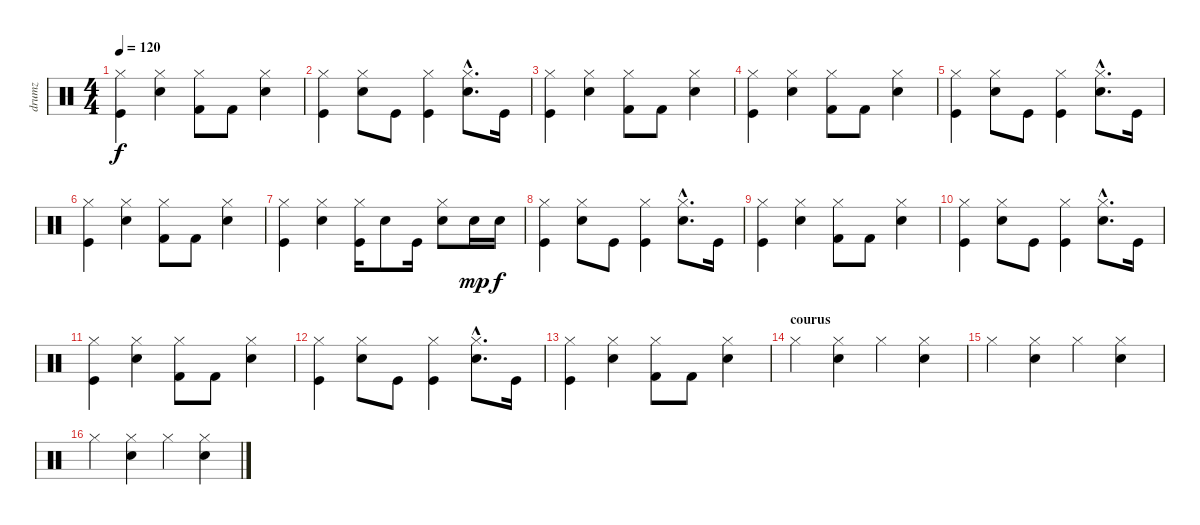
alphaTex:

\track ("drumz" "drumz") {instrument percussion}
\staff {score}
\articulation defaults
\ts (4 4)
\tempo 120
\clef neutral
\ks c
("Kick (hit)" "Hi-Hat (closed)").4{dy f} ("Snare (hit) 2" "Hi-Hat (closed)").4 ("Kick (hit) 2" "Hi-Hat (closed)").8 "Kick (hit) 2".8 ("Snare (hit) 2" "Hi-Hat (closed)").4 |
("Kick (hit)" "Hi-Hat (closed)").4 ("Snare (hit) 2" "Hi-Hat (closed)").8 "Kick (hit)".8 ("Kick (hit)" "Hi-Hat (closed)").4 ("Snare (hit) 2"{hac} "Hi-Hat (closed)"{hac}).8{d} "Kick (hit)".16 |
("Kick (hit)" "Hi-Hat (closed)").4 ("Snare (hit) 2" "Hi-Hat (closed)").4 ("Kick (hit) 2" "Hi-Hat (closed)").8 "Kick (hit) 2".8 ("Snare (hit) 2" "Hi-Hat (closed)").4 |
("Kick (hit)" "Hi-Hat (closed)").4 ("Snare (hit) 2" "Hi-Hat (closed)").4 ("Kick (hit) 2" "Hi-Hat (closed)").8 "Kick (hit) 2".8 ("Snare (hit) 2" "Hi-Hat (closed)").4 |
("Kick (hit)" "Hi-Hat (closed)").4 ("Snare (hit) 2" "Hi-Hat (closed)").8 "Kick (hit)".8 ("Kick (hit)" "Hi-Hat (closed)").4 ("Snare (hit) 2"{hac} "Hi-Hat (closed)"{hac}).8{d} "Kick (hit)".16 |
("Kick (hit)" "Hi-Hat (closed)").4 ("Snare (hit) 2" "Hi-Hat (closed)").4 ("Kick (hit) 2" "Hi-Hat (closed)").8 "Kick (hit) 2".8 ("Snare (hit) 2" "Hi-Hat (closed)").4 |
("Kick (hit)" "Hi-Hat (closed)").4 ("Snare (hit) 2" "Hi-Hat (closed)").4 ("Kick (hit)" "Hi-Hat (closed)").16 "Snare (hit) 2".8 "Kick (hit)".16 ("Snare (hit) 2" "Hi-Hat (closed)").8 "Snare (hit) 2".16{dy mp} "Snare (hit) 2".16{dy f} |
("Kick (hit)" "Hi-Hat (closed)").4 ("Snare (hit) 2" "Hi-Hat (closed)").8 "Kick (hit)".8 ("Kick (hit)" "Hi-Hat (closed)").4 ("Snare (hit) 2"{hac} "Hi-Hat (closed)"{hac}).8{d} "Kick (hit)".16 |
("Kick (hit)" "Hi-Hat (closed)").4 ("Snare (hit) 2" "Hi-Hat (closed)").4 ("Kick (hit) 2" "Hi-Hat (closed)").8 "Kick (hit) 2".8 ("Snare (hit) 2" "Hi-Hat (closed)").4 |
("Kick (hit)" "Hi-Hat (closed)").4 ("Snare (hit) 2" "Hi-Hat (closed)").8 "Kick (hit)".8 ("Kick (hit)" "Hi-Hat (closed)").4 ("Snare (hit) 2"{hac} "Hi-Hat (closed)"{hac}).8{d} "Kick (hit)".16 |
("Kick (hit)" "Hi-Hat (closed)").4 ("Snare (hit) 2" "Hi-Hat (closed)").4 ("Kick (hit) 2" "Hi-Hat (closed)").8 "Kick (hit) 2".8 ("Snare (hit) 2" "Hi-Hat (closed)").4 |
("Kick (hit)" "Hi-Hat (closed)").4 ("Snare (hit) 2" "Hi-Hat (closed)").8 "Kick (hit)".8 ("Kick (hit)" "Hi-Hat (closed)").4 ("Snare (hit) 2"{hac} "Hi-Hat (closed)"{hac}).8{d} "Kick (hit)".16 |
("Kick (hit)" "Hi-Hat (closed)").4 ("Snare (hit) 2" "Hi-Hat (closed)").4 ("Kick (hit) 2" "Hi-Hat (closed)").8 "Kick (hit) 2".8 ("Snare (hit) 2" "Hi-Hat (closed)").4 |
\section ("" "courus")
"Hi-Hat (closed)".4 ("Snare (hit) 2" "Hi-Hat (closed)").4 "Hi-Hat (closed)".4 ("Snare (hit) 2" "Hi-Hat (closed)").4 |
"Hi-Hat (closed)".4 ("Snare (hit) 2" "Hi-Hat (closed)").4 "Hi-Hat (closed)".4 ("Snare (hit) 2" "Hi-Hat (closed)").4 |
"Hi-Hat (closed)".4 ("Snare (hit) 2" "Hi-Hat (closed)").4 "Hi-Hat (closed)".4 ("Snare (hit) 2" "Hi-Hat (closed)").4
